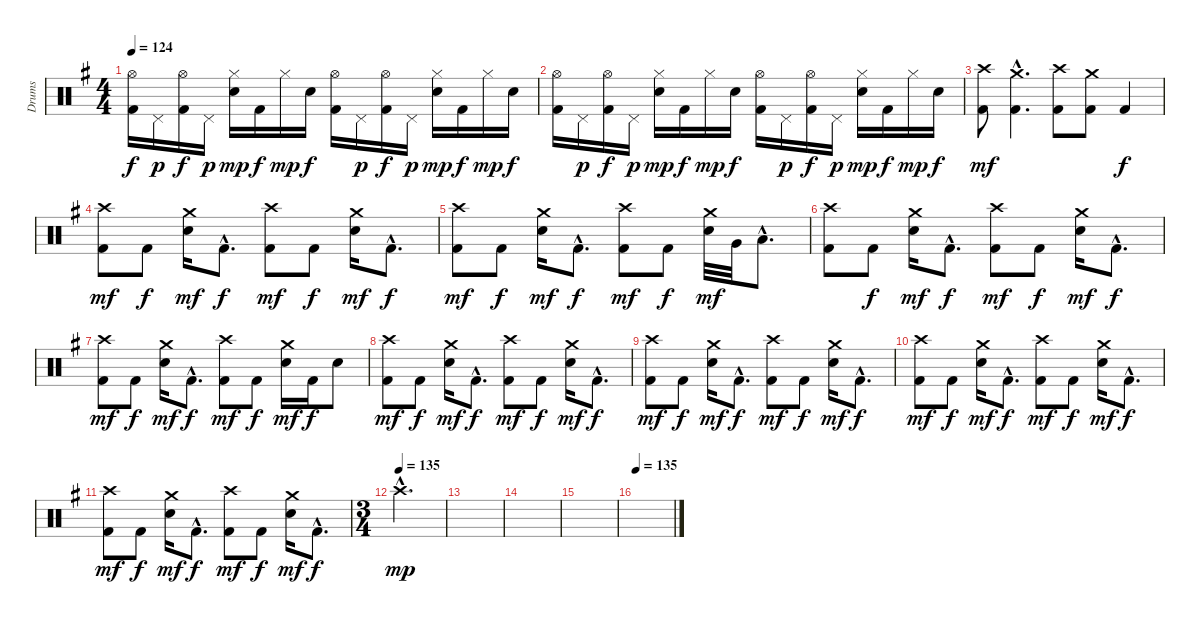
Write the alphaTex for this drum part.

\track ("Drums" "Drums") {instrument percussion}
\staff {score}
\articulation defaults
\ts (4 4)
\tempo 124
\clef neutral
\ks g
("Hi-Hat (open)" "Kick (hit) 2").16{dy f} "Pedal Hi-Hat (hit)".16{dy p} ("Hi-Hat (open)" "Kick (hit) 2").16{dy f} "Pedal Hi-Hat (hit)".16{dy p} ("Hi-Hat (closed)" "Snare (hit) 2").16{dy mp} "Kick (hit) 2".16{dy f} "Hi-Hat (closed)".16{dy mp} "Snare (hit) 2".16{dy f} ("Hi-Hat (open)" "Kick (hit) 2").16 "Pedal Hi-Hat (hit)".16{dy p} ("Hi-Hat (open)" "Kick (hit) 2").16{dy f} "Pedal Hi-Hat (hit)".16{dy p} ("Hi-Hat (closed)" "Snare (hit) 2").16{dy mp} "Kick (hit) 2".16{dy f} "Hi-Hat (closed)".16{dy mp} "Snare (hit) 2".16{dy f} |
("Hi-Hat (open)" "Kick (hit) 2").16 "Pedal Hi-Hat (hit)".16{dy p} ("Hi-Hat (open)" "Kick (hit) 2").16{dy f} "Pedal Hi-Hat (hit)".16{dy p} ("Hi-Hat (closed)" "Snare (hit) 2").16{dy mp} "Kick (hit) 2".16{dy f} "Hi-Hat (closed)".16{dy mp} "Snare (hit) 2".16{dy f} ("Hi-Hat (open)" "Kick (hit) 2").16 "Pedal Hi-Hat (hit)".16{dy p} ("Hi-Hat (open)" "Kick (hit) 2").16{dy f} "Pedal Hi-Hat (hit)".16{dy p} ("Hi-Hat (closed)" "Snare (hit) 2").16{dy mp} "Kick (hit) 2".16{dy f} "Hi-Hat (closed)".16{dy mp} "Snare (hit) 2".16{dy f} |
("Crash high (hit)" "Kick (hit) 2").8{dy mf} ("Crash medium (hit)"{hac} "Kick (hit) 2"{hac}).4{d} ("Crash high (hit)" "Kick (hit) 2").8 ("Crash medium (hit)" "Kick (hit) 2").8 "Kick (hit) 2".4{dy f} |
("Crash high (hit)" "Kick (hit) 2").8{dy mf} "Kick (hit) 2".8{dy f} ("Crash medium (hit)" "Snare (hit) 2").16{dy mf} "Kick (hit) 2"{hac}.8{d dy f} ("Crash high (hit)" "Kick (hit) 2").8{dy mf} "Kick (hit) 2".8{dy f} ("Crash medium (hit)" "Snare (hit) 2").16{dy mf} "Kick (hit) 2"{hac}.8{d dy f} |
("Crash high (hit)" "Kick (hit) 2").8{dy mf} "Kick (hit) 2".8{dy f} ("Crash medium (hit)" "Snare (hit) 2").16{dy mf} "Kick (hit) 2"{hac}.8{d dy f} ("Crash high (hit)" "Kick (hit) 2").8{dy mf} "Kick (hit) 2".8{dy f} ("Crash medium (hit)" "Snare (hit) 2").32{dy mf} "Very Low Tom (hit)".32 "Low Floor Tom (hit)"{hac}.8{d} |
("Crash high (hit)" "Kick (hit) 2").8 "Kick (hit) 2".8{dy f} ("Crash medium (hit)" "Snare (hit) 2").16{dy mf} "Kick (hit) 2"{hac}.8{d dy f} ("Crash high (hit)" "Kick (hit) 2").8{dy mf} "Kick (hit) 2".8{dy f} ("Crash medium (hit)" "Snare (hit) 2").16{dy mf} "Kick (hit) 2"{hac}.8{d dy f} |
("Crash high (hit)" "Kick (hit) 2").8{dy mf} "Kick (hit) 2".8{dy f} ("Crash medium (hit)" "Snare (hit) 2").16{dy mf} "Kick (hit) 2"{hac}.8{d dy f} ("Crash high (hit)" "Kick (hit) 2").8{dy mf} "Kick (hit) 2".8{dy f} ("Crash medium (hit)" "Snare (hit) 2").16{dy mf} "Kick (hit) 2".16{dy f} "Snare (hit) 2".8 |
("Crash high (hit)" "Kick (hit) 2").8{dy mf} "Kick (hit) 2".8{dy f} ("Crash medium (hit)" "Snare (hit) 2").16{dy mf} "Kick (hit) 2"{hac}.8{d dy f} ("Crash high (hit)" "Kick (hit) 2").8{dy mf} "Kick (hit) 2".8{dy f} ("Crash medium (hit)" "Snare (hit) 2").16{dy mf} "Kick (hit) 2"{hac}.8{d dy f} |
("Crash high (hit)" "Kick (hit) 2").8{dy mf} "Kick (hit) 2".8{dy f} ("Crash medium (hit)" "Snare (hit) 2").16{dy mf} "Kick (hit) 2"{hac}.8{d dy f} ("Crash high (hit)" "Kick (hit) 2").8{dy mf} "Kick (hit) 2".8{dy f} ("Crash medium (hit)" "Snare (hit) 2").16{dy mf} "Kick (hit) 2"{hac}.8{d dy f} |
("Crash high (hit)" "Kick (hit) 2").8{dy mf} "Kick (hit) 2".8{dy f} ("Crash medium (hit)" "Snare (hit) 2").16{dy mf} "Kick (hit) 2"{hac}.8{d dy f} ("Crash high (hit)" "Kick (hit) 2").8{dy mf} "Kick (hit) 2".8{dy f} ("Crash medium (hit)" "Snare (hit) 2").16{dy mf} "Kick (hit) 2"{hac}.8{d dy f} |
("Crash high (hit)" "Kick (hit) 2").8{dy mf} "Kick (hit) 2".8{dy f} ("Crash medium (hit)" "Snare (hit) 2").16{dy mf} "Kick (hit) 2"{hac}.8{d dy f} ("Crash high (hit)" "Kick (hit) 2").8{dy mf} "Kick (hit) 2".8{dy f} ("Crash medium (hit)" "Snare (hit) 2").16{dy mf} "Kick (hit) 2"{hac}.8{d dy f} |
\ts (3 4)
\tempo (135)
"Crash high (hit)"{hac}.2{d dy mp} |
|
|
|
\tempo 135
